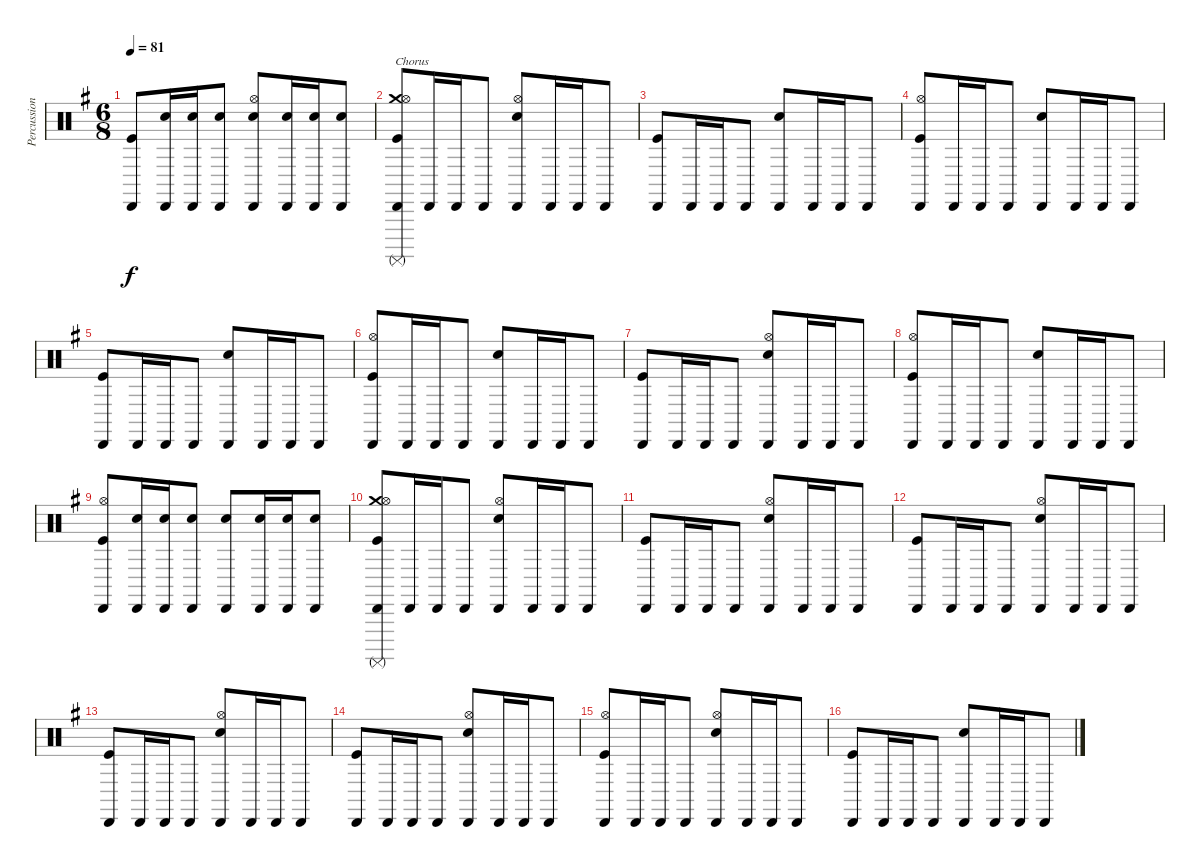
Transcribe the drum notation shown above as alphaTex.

\track ("Percussion" "Percussion") {instrument percussion}
\staff {score}
\articulation defaults
\ts (6 8)
\tempo 81
\clef neutral
\ks g
("Cabasa (hit)" "Kick (hit)").8{dy f} ("Cabasa (hit)" "Snare (hit) 2").16 ("Cabasa (hit)" "Snare (hit) 2").16 ("Cabasa (hit)" "Snare (hit) 2").8 ("Cabasa (hit)" "Hi-Hat (open)" "Snare (hit) 2").8 ("Cabasa (hit)" "Snare (hit) 2").16 ("Cabasa (hit)" "Snare (hit) 2").16 ("Cabasa (hit)" "Snare (hit) 2").8 |
("Cabasa (hit)" "Crash medium (hit)" "Surdo (mute)" "Hi-Hat (open)" "Kick (hit)").8{txt "Chorus"} "Cabasa (hit)".16 "Cabasa (hit)".16 "Cabasa (hit)".8 ("Cabasa (hit)" "Hi-Hat (open)" "Snare (hit) 2").8 "Cabasa (hit)".16 "Cabasa (hit)".16 "Cabasa (hit)".8 |
("Cabasa (hit)" "Kick (hit)").8 "Cabasa (hit)".16 "Cabasa (hit)".16 "Cabasa (hit)".8 ("Cabasa (hit)" "Snare (hit) 2").8 "Cabasa (hit)".16 "Cabasa (hit)".16 "Cabasa (hit)".8 |
("Cabasa (hit)" "Hi-Hat (open)" "Kick (hit)").8 "Cabasa (hit)".16 "Cabasa (hit)".16 "Cabasa (hit)".8 ("Cabasa (hit)" "Snare (hit) 2").8 "Cabasa (hit)".16 "Cabasa (hit)".16 "Cabasa (hit)".8 |
("Cabasa (hit)" "Kick (hit)").8 "Cabasa (hit)".16 "Cabasa (hit)".16 "Cabasa (hit)".8 ("Cabasa (hit)" "Snare (hit) 2").8 "Cabasa (hit)".16 "Cabasa (hit)".16 "Cabasa (hit)".8 |
("Cabasa (hit)" "Hi-Hat (open)" "Kick (hit)").8 "Cabasa (hit)".16 "Cabasa (hit)".16 "Cabasa (hit)".8 ("Cabasa (hit)" "Snare (hit) 2").8 "Cabasa (hit)".16 "Cabasa (hit)".16 "Cabasa (hit)".8 |
("Cabasa (hit)" "Kick (hit)").8 "Cabasa (hit)".16 "Cabasa (hit)".16 "Cabasa (hit)".8 ("Cabasa (hit)" "Hi-Hat (open)" "Snare (hit) 2").8 "Cabasa (hit)".16 "Cabasa (hit)".16 "Cabasa (hit)".8 |
("Cabasa (hit)" "Hi-Hat (open)" "Kick (hit)").8 "Cabasa (hit)".16 "Cabasa (hit)".16 "Cabasa (hit)".8 ("Cabasa (hit)" "Snare (hit) 2").8 "Cabasa (hit)".16 "Cabasa (hit)".16 "Cabasa (hit)".8 |
("Cabasa (hit)" "Hi-Hat (open)" "Kick (hit)").8 ("Cabasa (hit)" "Snare (hit) 2").16 ("Cabasa (hit)" "Snare (hit) 2").16 ("Cabasa (hit)" "Snare (hit) 2").8 ("Cabasa (hit)" "Snare (hit) 2").8 ("Cabasa (hit)" "Snare (hit) 2").16 ("Cabasa (hit)" "Snare (hit) 2").16 ("Cabasa (hit)" "Snare (hit) 2").8 |
("Cabasa (hit)" "Crash medium (hit)" "Surdo (mute)" "Hi-Hat (open)" "Kick (hit)").8 "Cabasa (hit)".16 "Cabasa (hit)".16 "Cabasa (hit)".8 ("Cabasa (hit)" "Hi-Hat (open)" "Snare (hit) 2").8 "Cabasa (hit)".16 "Cabasa (hit)".16 "Cabasa (hit)".8 |
("Cabasa (hit)" "Kick (hit)").8 "Cabasa (hit)".16 "Cabasa (hit)".16 "Cabasa (hit)".8 ("Cabasa (hit)" "Hi-Hat (open)" "Snare (hit) 2").8 "Cabasa (hit)".16 "Cabasa (hit)".16 "Cabasa (hit)".8 |
("Cabasa (hit)" "Kick (hit)").8 "Cabasa (hit)".16 "Cabasa (hit)".16 "Cabasa (hit)".8 ("Cabasa (hit)" "Hi-Hat (open)" "Snare (hit) 2").8 "Cabasa (hit)".16 "Cabasa (hit)".16 "Cabasa (hit)".8 |
("Cabasa (hit)" "Kick (hit)").8 "Cabasa (hit)".16 "Cabasa (hit)".16 "Cabasa (hit)".8 ("Cabasa (hit)" "Hi-Hat (open)" "Snare (hit) 2").8 "Cabasa (hit)".16 "Cabasa (hit)".16 "Cabasa (hit)".8 |
("Cabasa (hit)" "Kick (hit)").8 "Cabasa (hit)".16 "Cabasa (hit)".16 "Cabasa (hit)".8 ("Cabasa (hit)" "Hi-Hat (open)" "Snare (hit) 2").8 "Cabasa (hit)".16 "Cabasa (hit)".16 "Cabasa (hit)".8 |
("Cabasa (hit)" "Hi-Hat (open)" "Kick (hit)").8 "Cabasa (hit)".16 "Cabasa (hit)".16 "Cabasa (hit)".8 ("Cabasa (hit)" "Hi-Hat (open)" "Snare (hit) 2").8 "Cabasa (hit)".16 "Cabasa (hit)".16 "Cabasa (hit)".8 |
("Cabasa (hit)" "Kick (hit)").8 "Cabasa (hit)".16 "Cabasa (hit)".16 "Cabasa (hit)".8 ("Cabasa (hit)" "Snare (hit) 2").8 "Cabasa (hit)".16 "Cabasa (hit)".16 "Cabasa (hit)".8
